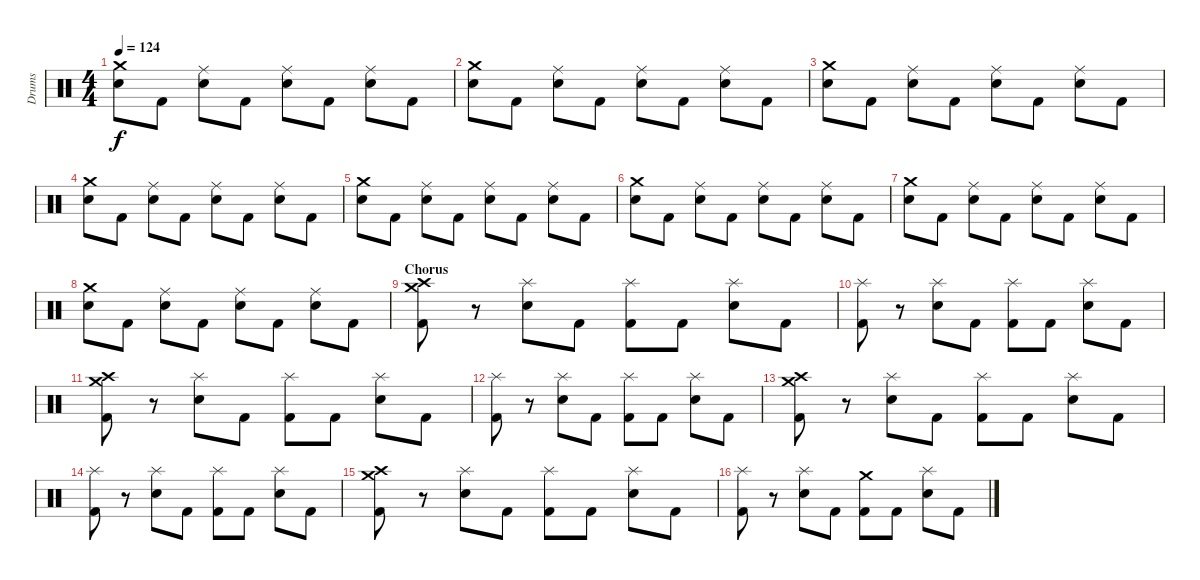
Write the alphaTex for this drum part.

\track ("Drums" "Drums") {instrument percussion}
\staff {score}
\articulation defaults
\ts (4 4)
\tempo 124
\clef neutral
\ks c
("Crash medium (hit)" "Snare (hit) 2").8{dy f} "Kick (hit) 2".8 ("Ride (middle)" "Snare (hit) 2").8 "Kick (hit) 2".8 ("Ride (middle)" "Snare (hit) 2").8 "Kick (hit) 2".8 ("Ride (middle)" "Snare (hit) 2").8 "Kick (hit) 2".8 |
("Crash medium (hit)" "Snare (hit) 2").8 "Kick (hit) 2".8 ("Ride (middle)" "Snare (hit) 2").8 "Kick (hit) 2".8 ("Ride (middle)" "Snare (hit) 2").8 "Kick (hit) 2".8 ("Ride (middle)" "Snare (hit) 2").8 "Kick (hit) 2".8 |
("Crash medium (hit)" "Snare (hit) 2").8 "Kick (hit) 2".8 ("Ride (middle)" "Snare (hit) 2").8 "Kick (hit) 2".8 ("Ride (middle)" "Snare (hit) 2").8 "Kick (hit) 2".8 ("Ride (middle)" "Snare (hit) 2").8 "Kick (hit) 2".8 |
("Crash medium (hit)" "Snare (hit) 2").8 "Kick (hit) 2".8 ("Ride (middle)" "Snare (hit) 2").8 "Kick (hit) 2".8 ("Ride (middle)" "Snare (hit) 2").8 "Kick (hit) 2".8 ("Ride (middle)" "Snare (hit) 2").8 "Kick (hit) 2".8 |
("Crash medium (hit)" "Snare (hit) 2").8 "Kick (hit) 2".8 ("Ride (middle)" "Snare (hit) 2").8 "Kick (hit) 2".8 ("Ride (middle)" "Snare (hit) 2").8 "Kick (hit) 2".8 ("Ride (middle)" "Snare (hit) 2").8 "Kick (hit) 2".8 |
("Crash medium (hit)" "Snare (hit) 2").8 "Kick (hit) 2".8 ("Ride (middle)" "Snare (hit) 2").8 "Kick (hit) 2".8 ("Ride (middle)" "Snare (hit) 2").8 "Kick (hit) 2".8 ("Ride (middle)" "Snare (hit) 2").8 "Kick (hit) 2".8 |
("Crash medium (hit)" "Snare (hit) 2").8 "Kick (hit) 2".8 ("Ride (middle)" "Snare (hit) 2").8 "Kick (hit) 2".8 ("Ride (middle)" "Snare (hit) 2").8 "Kick (hit) 2".8 ("Ride (middle)" "Snare (hit) 2").8 "Kick (hit) 2".8 |
("Crash medium (hit)" "Snare (hit) 2").8 "Kick (hit) 2".8 ("Ride (middle)" "Snare (hit) 2").8 "Kick (hit) 2".8 ("Ride (middle)" "Snare (hit) 2").8 "Kick (hit) 2".8 ("Ride (middle)" "Snare (hit) 2").8 "Kick (hit) 2".8 |
\section ("" "Chorus")
("Crash medium (hit)" "Crash high (hit)" "Kick (hit) 2").8 r.8 ("Splash (hit)" "Snare (hit) 2").8 "Kick (hit) 2".8 ("Splash (hit)" "Kick (hit) 2").8 "Kick (hit) 2".8 ("Splash (hit)" "Snare (hit) 2").8 "Kick (hit) 2".8 |
("Splash (hit)" "Kick (hit) 2").8 r.8 ("Splash (hit)" "Snare (hit) 2").8 "Kick (hit) 2".8 ("Splash (hit)" "Kick (hit) 2").8 "Kick (hit) 2".8 ("Splash (hit)" "Snare (hit) 2").8 "Kick (hit) 2".8 |
("Crash medium (hit)" "Crash high (hit)" "Kick (hit) 2").8 r.8 ("Splash (hit)" "Snare (hit) 2").8 "Kick (hit) 2".8 ("Splash (hit)" "Kick (hit) 2").8 "Kick (hit) 2".8 ("Splash (hit)" "Snare (hit) 2").8 "Kick (hit) 2".8 |
("Splash (hit)" "Kick (hit) 2").8 r.8 ("Splash (hit)" "Snare (hit) 2").8 "Kick (hit) 2".8 ("Splash (hit)" "Kick (hit) 2").8 "Kick (hit) 2".8 ("Splash (hit)" "Snare (hit) 2").8 "Kick (hit) 2".8 |
("Crash medium (hit)" "Crash high (hit)" "Kick (hit) 2").8 r.8 ("Splash (hit)" "Snare (hit) 2").8 "Kick (hit) 2".8 ("Splash (hit)" "Kick (hit) 2").8 "Kick (hit) 2".8 ("Splash (hit)" "Snare (hit) 2").8 "Kick (hit) 2".8 |
("Splash (hit)" "Kick (hit) 2").8 r.8 ("Splash (hit)" "Snare (hit) 2").8 "Kick (hit) 2".8 ("Splash (hit)" "Kick (hit) 2").8 "Kick (hit) 2".8 ("Splash (hit)" "Snare (hit) 2").8 "Kick (hit) 2".8 |
("Crash medium (hit)" "Crash high (hit)" "Kick (hit) 2").8 r.8 ("Splash (hit)" "Snare (hit) 2").8 "Kick (hit) 2".8 ("Splash (hit)" "Kick (hit) 2").8 "Kick (hit) 2".8 ("Splash (hit)" "Snare (hit) 2").8 "Kick (hit) 2".8 |
("Splash (hit)" "Kick (hit) 2").8 r.8 ("Splash (hit)" "Snare (hit) 2").8 "Kick (hit) 2".8 ("Crash medium (hit)" "Kick (hit) 2").8 "Kick (hit) 2".8 ("Splash (hit)" "Snare (hit) 2").8 "Kick (hit) 2".8
